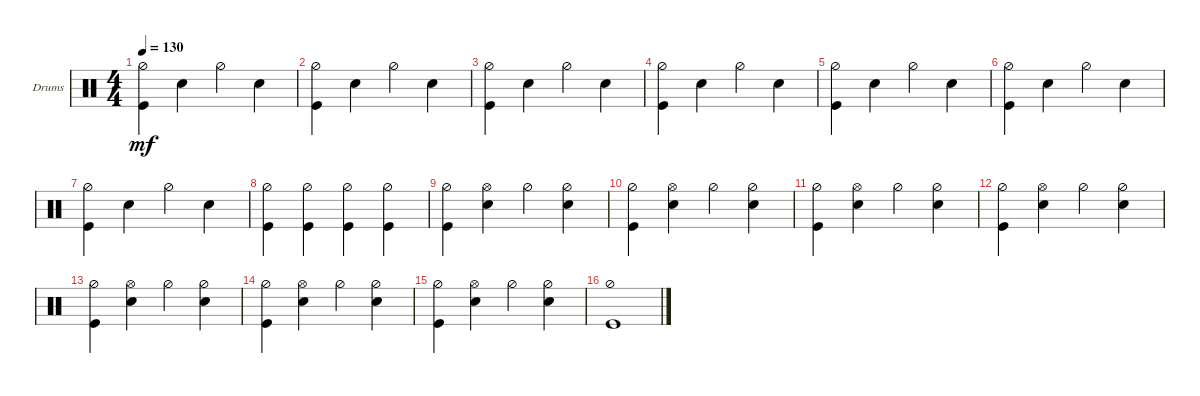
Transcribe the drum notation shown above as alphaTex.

\defaultSystemsLayout 4
\bracketExtendMode groupsimilarinstruments
\firstSystemTrackNameOrientation horizontal
\otherSystemsTrackNameOrientation horizontal
\track ("Drumkit" "Drums") {instrument percussion}
\staff {score}
\articulation defaults
\ts (4 4)
\tempo 130
\clef neutral
\ks c
("Hi-Hat (half)" "Kick (hit)").4{dy mf} "Snare (hit) 2".4 "Hi-Hat (half)".4 "Snare (hit) 2".4 |
("Hi-Hat (half)" "Kick (hit)").4 "Snare (hit) 2".4 "Hi-Hat (half)".4 "Snare (hit) 2".4 |
("Hi-Hat (half)" "Kick (hit)").4 "Snare (hit) 2".4 "Hi-Hat (half)".4 "Snare (hit) 2".4 |
("Hi-Hat (half)" "Kick (hit)").4 "Snare (hit) 2".4 "Hi-Hat (half)".4 "Snare (hit) 2".4 |
("Hi-Hat (half)" "Kick (hit)").4 "Snare (hit) 2".4 "Hi-Hat (half)".4 "Snare (hit) 2".4 |
("Hi-Hat (half)" "Kick (hit)").4 "Snare (hit) 2".4 "Hi-Hat (half)".4 "Snare (hit) 2".4 |
("Hi-Hat (half)" "Kick (hit)").4 "Snare (hit) 2".4 "Hi-Hat (half)".4 "Snare (hit) 2".4 |
("Hi-Hat (half)" "Kick (hit)").4 ("Hi-Hat (half)" "Kick (hit)").4 ("Hi-Hat (half)" "Kick (hit)").4 ("Hi-Hat (half)" "Kick (hit)").4 |
("Hi-Hat (half)" "Kick (hit)").4 ("Snare (hit) 2" "Hi-Hat (open)").4 "Hi-Hat (half)".4 ("Snare (hit) 2" "Hi-Hat (half)").4 |
("Hi-Hat (half)" "Kick (hit)").4 ("Snare (hit) 2" "Hi-Hat (open)").4 "Hi-Hat (half)".4 ("Snare (hit) 2" "Hi-Hat (half)").4 |
("Hi-Hat (half)" "Kick (hit)").4 ("Snare (hit) 2" "Hi-Hat (open)").4 "Hi-Hat (half)".4 ("Snare (hit) 2" "Hi-Hat (half)").4 |
("Hi-Hat (half)" "Kick (hit)").4 ("Snare (hit) 2" "Hi-Hat (open)").4 "Hi-Hat (half)".4 ("Snare (hit) 2" "Hi-Hat (half)").4 |
("Hi-Hat (half)" "Kick (hit)").4 ("Snare (hit) 2" "Hi-Hat (open)").4 "Hi-Hat (half)".4 ("Snare (hit) 2" "Hi-Hat (half)").4 |
("Hi-Hat (half)" "Kick (hit)").4 ("Snare (hit) 2" "Hi-Hat (open)").4 "Hi-Hat (half)".4 ("Snare (hit) 2" "Hi-Hat (half)").4 |
("Hi-Hat (half)" "Kick (hit)").4 ("Snare (hit) 2" "Hi-Hat (open)").4 "Hi-Hat (half)".4 ("Snare (hit) 2" "Hi-Hat (half)").4 |
("Hi-Hat (half)" "Kick (hit)").1
